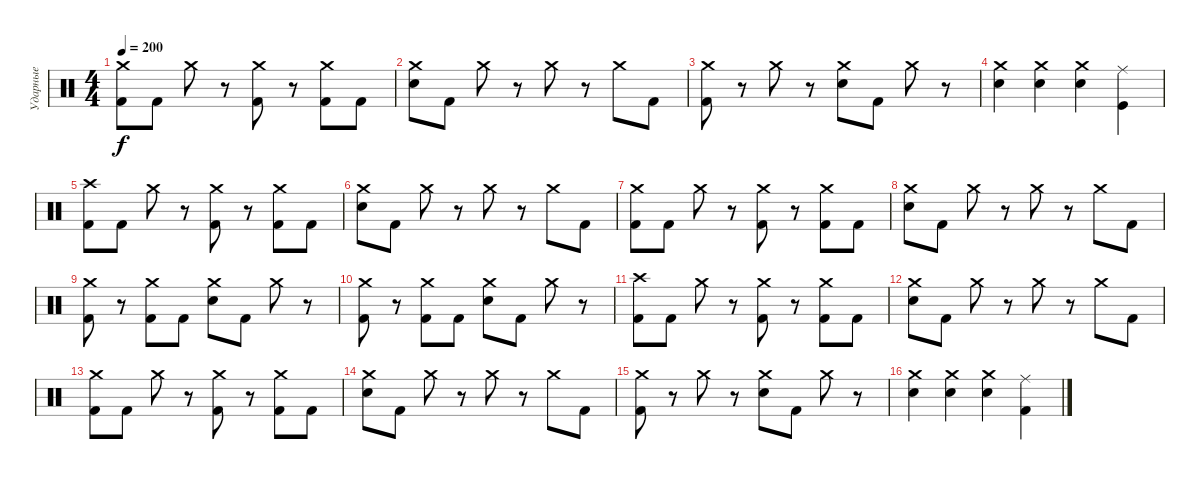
\track ("Ударные" "Ударные") {instrument percussion}
\staff {score}
\articulation defaults
\ts (4 4)
\tempo 200
\clef neutral
\ks c
("Crash medium (hit)" "Kick (hit) 2").8{dy f} "Kick (hit) 2".8 "Crash medium (hit)".8 r.8 ("Crash medium (hit)" "Kick (hit) 2").8 r.8 ("Crash medium (hit)" "Kick (hit) 2").8 "Kick (hit) 2".8 |
("Crash medium (hit)" "Electric Snare (hit)").8 "Kick (hit) 2".8 "Crash medium (hit)".8 r.8 "Crash medium (hit)".8 r.8 "Crash medium (hit)".8 "Kick (hit) 2".8 |
("Crash medium (hit)" "Kick (hit) 2").8 r.8 "Crash medium (hit)".8 r.8 ("Crash medium (hit)" "Electric Snare (hit)").8 "Kick (hit) 2".8 "Crash medium (hit)".8 r.8 |
("Crash medium (hit)" "Electric Snare (hit)").4 ("Crash medium (hit)" "Electric Snare (hit)").4 ("Crash medium (hit)" "Electric Snare (hit)").4 ("Ride (middle)" "Kick (hit)").4 |
("Crash high (hit)" "Kick (hit) 2").8 "Kick (hit) 2".8 "Crash medium (hit)".8 r.8 ("Crash medium (hit)" "Kick (hit) 2").8 r.8 ("Crash medium (hit)" "Kick (hit) 2").8 "Kick (hit) 2".8 |
("Crash medium (hit)" "Electric Snare (hit)").8 "Kick (hit) 2".8 "Crash medium (hit)".8 r.8 "Crash medium (hit)".8 r.8 "Crash medium (hit)".8 "Kick (hit) 2".8 |
("Crash medium (hit)" "Kick (hit) 2").8 "Kick (hit) 2".8 "Crash medium (hit)".8 r.8 ("Crash medium (hit)" "Kick (hit) 2").8 r.8 ("Crash medium (hit)" "Kick (hit) 2").8 "Kick (hit) 2".8 |
("Crash medium (hit)" "Electric Snare (hit)").8 "Kick (hit) 2".8 "Crash medium (hit)".8 r.8 "Crash medium (hit)".8 r.8 "Crash medium (hit)".8 "Kick (hit) 2".8 |
("Crash medium (hit)" "Kick (hit) 2").8 r.8 ("Crash medium (hit)" "Kick (hit) 2").8 "Kick (hit) 2".8 ("Crash medium (hit)" "Electric Snare (hit)").8 "Kick (hit) 2".8 "Crash medium (hit)".8 r.8 |
("Crash medium (hit)" "Kick (hit) 2").8 r.8 ("Crash medium (hit)" "Kick (hit) 2").8 "Kick (hit) 2".8 ("Crash medium (hit)" "Electric Snare (hit)").8 "Kick (hit) 2".8 "Crash medium (hit)".8 r.8 |
("Crash high (hit)" "Kick (hit) 2").8 "Kick (hit) 2".8 "Crash medium (hit)".8 r.8 ("Crash medium (hit)" "Kick (hit) 2").8 r.8 ("Crash medium (hit)" "Kick (hit) 2").8 "Kick (hit) 2".8 |
("Crash medium (hit)" "Electric Snare (hit)").8 "Kick (hit) 2".8 "Crash medium (hit)".8 r.8 "Crash medium (hit)".8 r.8 "Crash medium (hit)".8 "Kick (hit) 2".8 |
("Crash medium (hit)" "Kick (hit) 2").8 "Kick (hit) 2".8 "Crash medium (hit)".8 r.8 ("Crash medium (hit)" "Kick (hit) 2").8 r.8 ("Crash medium (hit)" "Kick (hit) 2").8 "Kick (hit) 2".8 |
("Crash medium (hit)" "Electric Snare (hit)").8 "Kick (hit) 2".8 "Crash medium (hit)".8 r.8 "Crash medium (hit)".8 r.8 "Crash medium (hit)".8 "Kick (hit) 2".8 |
("Crash medium (hit)" "Kick (hit) 2").8 r.8 "Crash medium (hit)".8 r.8 ("Crash medium (hit)" "Electric Snare (hit)").8 "Kick (hit) 2".8 "Crash medium (hit)".8 r.8 |
("Crash medium (hit)" "Electric Snare (hit)").4 ("Crash medium (hit)" "Electric Snare (hit)").4 ("Crash medium (hit)" "Electric Snare (hit)").4 ("Ride (middle)" "Kick (hit) 2").4
